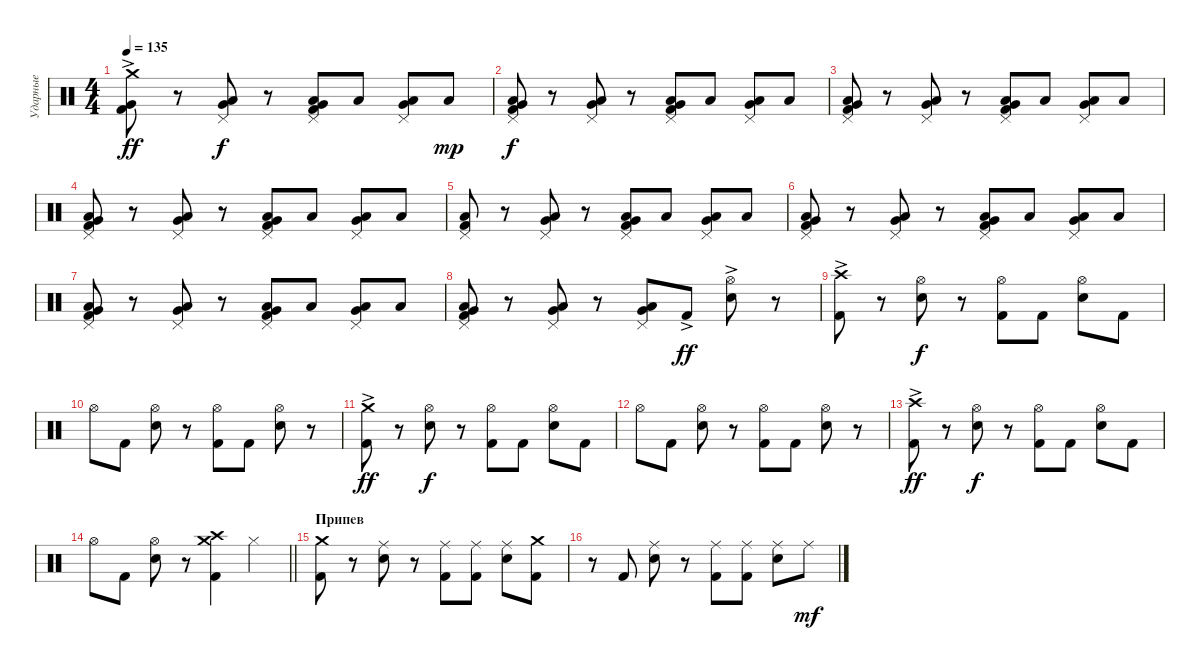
\track ("Ударные" "Ударные") {instrument percussion}
\staff
\articulation defaults
\ts (4 4)
\tempo 135
\clef neutral
\ks c
("Crash medium (hit)"{ac} "Very Low Tom (hit)" "Kick (hit) 2").8{dy ff} r.8 ("Pedal Hi-Hat (hit)" "Very Low Tom (hit)" "Low Floor Tom (hit)").8{dy f} r.8 ("Pedal Hi-Hat (hit)" "Very Low Tom (hit)" "Low Floor Tom (hit)" "Kick (hit) 2").8 "Low Floor Tom (hit)".8 ("Pedal Hi-Hat (hit)" "Very Low Tom (hit)" "Low Floor Tom (hit)").8 "Low Floor Tom (hit)".8{dy mp} |
("Pedal Hi-Hat (hit)" "Very Low Tom (hit)" "Low Floor Tom (hit)" "Kick (hit) 2").8{dy f} r.8 ("Pedal Hi-Hat (hit)" "Very Low Tom (hit)" "Low Floor Tom (hit)").8 r.8 ("Pedal Hi-Hat (hit)" "Very Low Tom (hit)" "Low Floor Tom (hit)" "Kick (hit) 2").8 "Low Floor Tom (hit)".8 ("Pedal Hi-Hat (hit)" "Very Low Tom (hit)" "Low Floor Tom (hit)").8 "Low Floor Tom (hit)".8 |
("Pedal Hi-Hat (hit)" "Very Low Tom (hit)" "Low Floor Tom (hit)" "Kick (hit) 2").8 r.8 ("Pedal Hi-Hat (hit)" "Very Low Tom (hit)" "Low Floor Tom (hit)").8 r.8 ("Pedal Hi-Hat (hit)" "Very Low Tom (hit)" "Low Floor Tom (hit)" "Kick (hit) 2").8 "Low Floor Tom (hit)".8 ("Pedal Hi-Hat (hit)" "Very Low Tom (hit)" "Low Floor Tom (hit)").8 "Low Floor Tom (hit)".8 |
("Pedal Hi-Hat (hit)" "Very Low Tom (hit)" "Low Floor Tom (hit)" "Kick (hit) 2").8 r.8 ("Pedal Hi-Hat (hit)" "Very Low Tom (hit)" "Low Floor Tom (hit)").8 r.8 ("Pedal Hi-Hat (hit)" "Very Low Tom (hit)" "Low Floor Tom (hit)" "Kick (hit) 2").8 "Low Floor Tom (hit)".8 ("Pedal Hi-Hat (hit)" "Very Low Tom (hit)" "Low Floor Tom (hit)").8 "Low Floor Tom (hit)".8 |
("Pedal Hi-Hat (hit)" "Low Floor Tom (hit)" "Kick (hit) 2").8 r.8 ("Pedal Hi-Hat (hit)" "Very Low Tom (hit)" "Low Floor Tom (hit)").8 r.8 ("Pedal Hi-Hat (hit)" "Very Low Tom (hit)" "Low Floor Tom (hit)" "Kick (hit) 2").8 "Low Floor Tom (hit)".8 ("Pedal Hi-Hat (hit)" "Very Low Tom (hit)" "Low Floor Tom (hit)").8 "Low Floor Tom (hit)".8 |
("Pedal Hi-Hat (hit)" "Very Low Tom (hit)" "Low Floor Tom (hit)" "Kick (hit) 2").8 r.8 ("Pedal Hi-Hat (hit)" "Very Low Tom (hit)" "Low Floor Tom (hit)").8 r.8 ("Pedal Hi-Hat (hit)" "Very Low Tom (hit)" "Low Floor Tom (hit)" "Kick (hit) 2").8 "Low Floor Tom (hit)".8 ("Pedal Hi-Hat (hit)" "Very Low Tom (hit)" "Low Floor Tom (hit)").8 "Low Floor Tom (hit)".8 |
("Pedal Hi-Hat (hit)" "Very Low Tom (hit)" "Low Floor Tom (hit)" "Kick (hit) 2").8 r.8 ("Pedal Hi-Hat (hit)" "Very Low Tom (hit)" "Low Floor Tom (hit)").8 r.8 ("Pedal Hi-Hat (hit)" "Very Low Tom (hit)" "Low Floor Tom (hit)" "Kick (hit) 2").8 "Low Floor Tom (hit)".8 ("Pedal Hi-Hat (hit)" "Very Low Tom (hit)" "Low Floor Tom (hit)").8 "Low Floor Tom (hit)".8 |
("Pedal Hi-Hat (hit)" "Very Low Tom (hit)" "Low Floor Tom (hit)" "Kick (hit) 2").8 r.8 ("Pedal Hi-Hat (hit)" "Very Low Tom (hit)" "Low Floor Tom (hit)").8 r.8 ("Pedal Hi-Hat (hit)" "Very Low Tom (hit)" "Low Floor Tom (hit)").8 "Kick (hit) 2"{ac}.8{dy ff} ("Hi-Hat (open)" "Electric Snare (hit)"{ac}).8 r.8 |
("Crash high (hit)"{ac} "Kick (hit) 2").8 r.8 ("Hi-Hat (open)" "Electric Snare (hit)").8{dy f} r.8 ("Hi-Hat (open)" "Kick (hit) 2").8 "Kick (hit) 2".8 ("Hi-Hat (open)" "Electric Snare (hit)").8 "Kick (hit) 2".8 |
"Hi-Hat (open)".8 "Kick (hit) 2".8 ("Hi-Hat (open)" "Electric Snare (hit)").8 r.8 ("Hi-Hat (open)" "Kick (hit) 2").8 "Kick (hit) 2".8 ("Hi-Hat (open)" "Electric Snare (hit)").8 r.8 |
("Crash medium (hit)"{ac} "Kick (hit) 2").8{dy ff} r.8 ("Hi-Hat (open)" "Electric Snare (hit)").8{dy f} r.8 ("Hi-Hat (open)" "Kick (hit) 2").8 "Kick (hit) 2".8 ("Hi-Hat (open)" "Electric Snare (hit)").8 "Kick (hit) 2".8 |
"Hi-Hat (open)".8 "Kick (hit) 2".8 ("Hi-Hat (open)" "Electric Snare (hit)").8 r.8 ("Hi-Hat (open)" "Kick (hit) 2").8 "Kick (hit) 2".8 ("Hi-Hat (open)" "Electric Snare (hit)").8 r.8 |
("Crash high (hit)"{ac} "Kick (hit) 2").8{dy ff} r.8 ("Hi-Hat (open)" "Electric Snare (hit)").8{dy f} r.8 ("Hi-Hat (open)" "Kick (hit) 2").8 "Kick (hit) 2".8 ("Hi-Hat (open)" "Electric Snare (hit)").8 "Kick (hit) 2".8 |
\barLineRight lightlight "Hi-Hat (open)".8 "Kick (hit) 2".8
("Hi-Hat (open)" "Electric Snare (hit)").8 r.8 ("Crash high (hit)" "Crash medium (hit)" "Kick (hit) 2").4 "Hi-Hat (closed)".4 |
\section ("" "Припев")
("Crash medium (hit)" "Kick (hit) 2").8 r.8 ("Ride (middle)" "Electric Snare (hit)").8 r.8 ("Ride (middle)" "Kick (hit) 2").8 ("Ride (middle)" "Kick (hit) 2").8 ("Ride (middle)" "Electric Snare (hit)").8 ("Crash medium (hit)" "Kick (hit) 2").8 |
r.8 "Kick (hit) 2".8 ("Ride (middle)" "Electric Snare (hit)").8 r.8 ("Ride (middle)" "Kick (hit) 2").8 ("Ride (middle)" "Kick (hit) 2").8 ("Ride (middle)" "Electric Snare (hit)").8 "Ride (middle)".8{dy mf}
